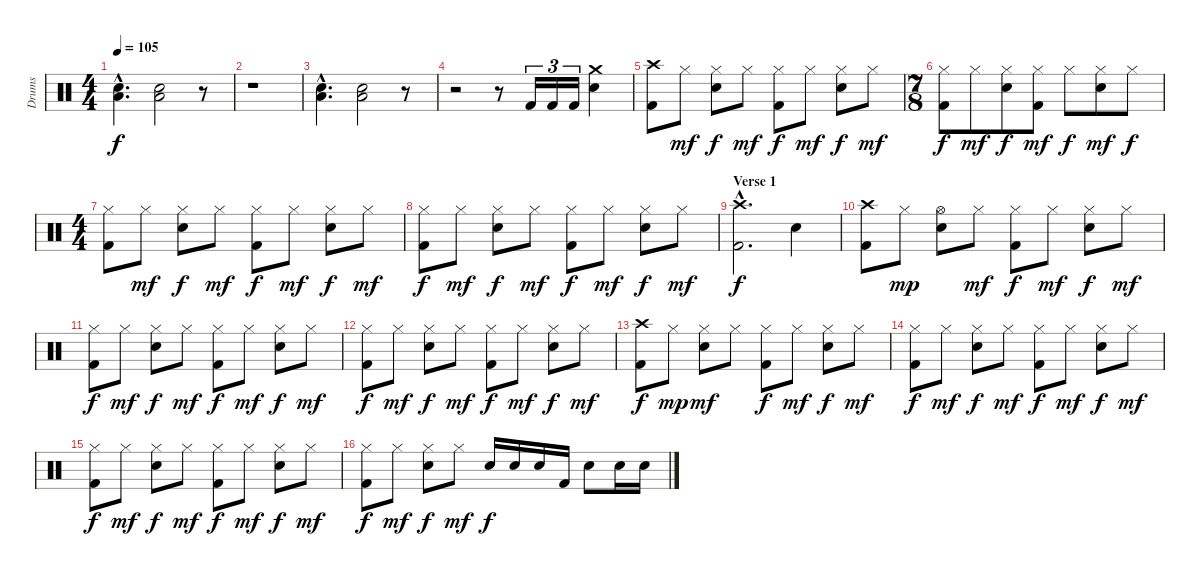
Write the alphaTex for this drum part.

\track ("Drums" "Drums") {instrument percussion}
\staff {score}
\articulation defaults
\ts (4 4)
\tempo 105
\clef neutral
\ks c
("Low Floor Tom (hit)"{hac} "Electric Snare (hit)"{hac}).4{d dy f} ("Low Floor Tom (hit)" "Electric Snare (hit)").2 r.8 |
r.1 |
("Low Floor Tom (hit)"{hac} "Electric Snare (hit)"{hac}).4{d} ("Low Floor Tom (hit)" "Electric Snare (hit)").2 r.8 |
r.2 r.8 "Kick (hit) 2".16{tu (3 2)} "Kick (hit) 2".16{tu (3 2)} "Kick (hit) 2".16{tu (3 2)} ("Crash medium (hit)" "Electric Snare (hit)").4 |
("Crash high (hit)" "Kick (hit) 2").8 "Hi-Hat (closed)".8{dy mf} ("Hi-Hat (closed)" "Electric Snare (hit)").8{dy f} "Hi-Hat (closed)".8{dy mf} ("Hi-Hat (closed)" "Kick (hit) 2").8{dy f} "Hi-Hat (closed)".8{dy mf} ("Hi-Hat (closed)" "Electric Snare (hit)").8{dy f} "Hi-Hat (closed)".8{dy mf} |
\ts (7 8)
("Hi-Hat (closed)" "Kick (hit) 2").8{dy f} "Hi-Hat (closed)".8{dy mf} ("Hi-Hat (closed)" "Electric Snare (hit)").8{dy f} ("Hi-Hat (closed)" "Kick (hit) 2").8{dy mf} "Hi-Hat (closed)".8{dy f} ("Hi-Hat (closed)" "Electric Snare (hit)").8{dy mf} "Hi-Hat (closed)".8{dy f} |
\ts (4 4)
("Hi-Hat (closed)" "Kick (hit) 2").8 "Hi-Hat (closed)".8{dy mf} ("Hi-Hat (closed)" "Electric Snare (hit)").8{dy f} "Hi-Hat (closed)".8{dy mf} ("Hi-Hat (closed)" "Kick (hit) 2").8{dy f} "Hi-Hat (closed)".8{dy mf} ("Hi-Hat (closed)" "Electric Snare (hit)").8{dy f} "Hi-Hat (closed)".8{dy mf} |
("Hi-Hat (closed)" "Kick (hit) 2").8{dy f} "Hi-Hat (closed)".8{dy mf} ("Hi-Hat (closed)" "Electric Snare (hit)").8{dy f} "Hi-Hat (closed)".8{dy mf} ("Hi-Hat (closed)" "Kick (hit) 2").8{dy f} "Hi-Hat (closed)".8{dy mf} ("Hi-Hat (closed)" "Electric Snare (hit)").8{dy f} "Hi-Hat (closed)".8{dy mf} |
\section ("" "Verse 1")
("Crash high (hit)"{hac} "Kick (hit) 2"{hac}).2{d dy f} "Electric Snare (hit)".4 |
("Crash high (hit)" "Kick (hit) 2").8 "Hi-Hat (closed)".8{dy mp} ("Hi-Hat (open)" "Electric Snare (hit)").8 "Hi-Hat (closed)".8{dy mf} ("Hi-Hat (closed)" "Kick (hit) 2").8{dy f} "Hi-Hat (closed)".8{dy mf} ("Hi-Hat (closed)" "Electric Snare (hit)").8{dy f} "Hi-Hat (closed)".8{dy mf} |
("Hi-Hat (closed)" "Kick (hit) 2").8{dy f} "Hi-Hat (closed)".8{dy mf} ("Hi-Hat (closed)" "Electric Snare (hit)").8{dy f} "Hi-Hat (closed)".8{dy mf} ("Hi-Hat (closed)" "Kick (hit) 2").8{dy f} "Hi-Hat (closed)".8{dy mf} ("Hi-Hat (closed)" "Electric Snare (hit)").8{dy f} "Hi-Hat (closed)".8{dy mf} |
("Hi-Hat (closed)" "Kick (hit) 2").8{dy f} "Hi-Hat (closed)".8{dy mf} ("Hi-Hat (closed)" "Electric Snare (hit)").8{dy f} "Hi-Hat (closed)".8{dy mf} ("Hi-Hat (closed)" "Kick (hit) 2").8{dy f} "Hi-Hat (closed)".8{dy mf} ("Hi-Hat (closed)" "Electric Snare (hit)").8{dy f} "Hi-Hat (closed)".8{dy mf} |
("Crash high (hit)" "Kick (hit) 2").8{dy f} "Hi-Hat (closed)".8{dy mp} ("Hi-Hat (closed)" "Electric Snare (hit)").8{dy mf} "Hi-Hat (closed)".8 ("Hi-Hat (closed)" "Kick (hit) 2").8{dy f} "Hi-Hat (closed)".8{dy mf} ("Hi-Hat (closed)" "Electric Snare (hit)").8{dy f} "Hi-Hat (closed)".8{dy mf} |
("Hi-Hat (closed)" "Kick (hit) 2").8{dy f} "Hi-Hat (closed)".8{dy mf} ("Hi-Hat (closed)" "Electric Snare (hit)").8{dy f} "Hi-Hat (closed)".8{dy mf} ("Hi-Hat (closed)" "Kick (hit) 2").8{dy f} "Hi-Hat (closed)".8{dy mf} ("Hi-Hat (closed)" "Electric Snare (hit)").8{dy f} "Hi-Hat (closed)".8{dy mf} |
("Hi-Hat (closed)" "Kick (hit) 2").8{dy f} "Hi-Hat (closed)".8{dy mf} ("Hi-Hat (closed)" "Electric Snare (hit)").8{dy f} "Hi-Hat (closed)".8{dy mf} ("Hi-Hat (closed)" "Kick (hit) 2").8{dy f} "Hi-Hat (closed)".8{dy mf} ("Hi-Hat (closed)" "Electric Snare (hit)").8{dy f} "Hi-Hat (closed)".8{dy mf} |
("Hi-Hat (closed)" "Kick (hit) 2").8{dy f} "Hi-Hat (closed)".8{dy mf} ("Hi-Hat (closed)" "Electric Snare (hit)").8{dy f} "Hi-Hat (closed)".8{dy mf} "Electric Snare (hit)".16{dy f} "Electric Snare (hit)".16 "Electric Snare (hit)".16 "Kick (hit) 2".16 "Electric Snare (hit)".8 "Electric Snare (hit)".16 "Electric Snare (hit)".16
